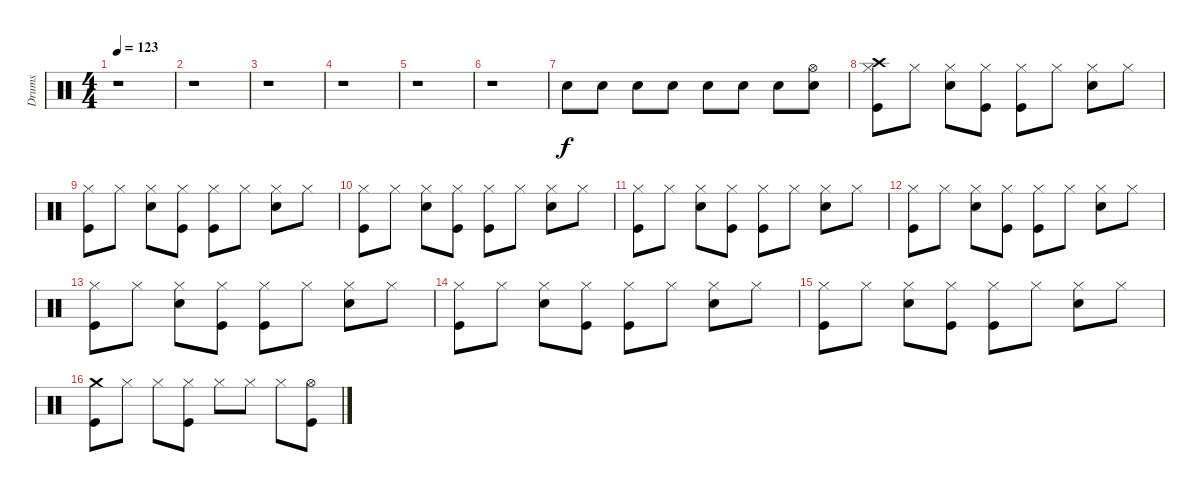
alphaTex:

\track ("Drums" "Drums") {instrument percussion}
\staff {score}
\articulation defaults
\ts (4 4)
\tempo 123
\clef neutral
\ks c
r.1{dy f} |
r.1 |
r.1 |
r.1 |
r.1 |
r.1 |
"Snare (hit) 2".8 "Snare (hit) 2".8 "Snare (hit) 2".8 "Snare (hit) 2".8 "Snare (hit) 2".8 "Snare (hit) 2".8 "Snare (hit) 2".8 ("Hi-Hat (open)" "Snare (hit) 2").8 |
("Hi-Hat (closed)" "Crash high (hit)" "Kick (hit)").8 "Hi-Hat (closed)".8 ("Hi-Hat (closed)" "Snare (hit) 2").8 ("Hi-Hat (closed)" "Kick (hit)").8 ("Hi-Hat (closed)" "Kick (hit)").8 "Hi-Hat (closed)".8 ("Hi-Hat (closed)" "Snare (hit) 2").8 "Hi-Hat (closed)".8 |
("Hi-Hat (closed)" "Kick (hit)").8 "Hi-Hat (closed)".8 ("Hi-Hat (closed)" "Snare (hit) 2").8 ("Hi-Hat (closed)" "Kick (hit)").8 ("Hi-Hat (closed)" "Kick (hit)").8 "Hi-Hat (closed)".8 ("Hi-Hat (closed)" "Snare (hit) 2").8 "Hi-Hat (closed)".8 |
("Hi-Hat (closed)" "Kick (hit)").8 "Hi-Hat (closed)".8 ("Hi-Hat (closed)" "Snare (hit) 2").8 ("Hi-Hat (closed)" "Kick (hit)").8 ("Hi-Hat (closed)" "Kick (hit)").8 "Hi-Hat (closed)".8 ("Hi-Hat (closed)" "Snare (hit) 2").8 "Hi-Hat (closed)".8 |
("Hi-Hat (closed)" "Kick (hit)").8 "Hi-Hat (closed)".8 ("Hi-Hat (closed)" "Snare (hit) 2").8 ("Hi-Hat (closed)" "Kick (hit)").8 ("Hi-Hat (closed)" "Kick (hit)").8 "Hi-Hat (closed)".8 ("Hi-Hat (closed)" "Snare (hit) 2").8 "Hi-Hat (closed)".8 |
("Hi-Hat (closed)" "Kick (hit)").8 "Hi-Hat (closed)".8 ("Hi-Hat (closed)" "Snare (hit) 2").8 ("Hi-Hat (closed)" "Kick (hit)").8 ("Hi-Hat (closed)" "Kick (hit)").8 "Hi-Hat (closed)".8 ("Hi-Hat (closed)" "Snare (hit) 2").8 "Hi-Hat (closed)".8 |
("Hi-Hat (closed)" "Kick (hit)").8 "Hi-Hat (closed)".8 ("Hi-Hat (closed)" "Snare (hit) 2").8 ("Hi-Hat (closed)" "Kick (hit)").8 ("Hi-Hat (closed)" "Kick (hit)").8 "Hi-Hat (closed)".8 ("Hi-Hat (closed)" "Snare (hit) 2").8 "Hi-Hat (closed)".8 |
("Hi-Hat (closed)" "Kick (hit)").8 "Hi-Hat (closed)".8 ("Hi-Hat (closed)" "Snare (hit) 2").8 ("Hi-Hat (closed)" "Kick (hit)").8 ("Hi-Hat (closed)" "Kick (hit)").8 "Hi-Hat (closed)".8 ("Hi-Hat (closed)" "Snare (hit) 2").8 "Hi-Hat (closed)".8 |
("Hi-Hat (closed)" "Kick (hit)").8 "Hi-Hat (closed)".8 ("Hi-Hat (closed)" "Snare (hit) 2").8 ("Hi-Hat (closed)" "Kick (hit)").8 ("Hi-Hat (closed)" "Kick (hit)").8 "Hi-Hat (closed)".8 ("Hi-Hat (closed)" "Snare (hit) 2").8 "Hi-Hat (closed)".8 |
("Crash medium (hit)" "Kick (hit)").8 "Hi-Hat (closed)".8 "Hi-Hat (closed)".8 ("Hi-Hat (closed)" "Kick (hit)").8 "Hi-Hat (closed)".8 "Hi-Hat (closed)".8 "Hi-Hat (closed)".8 ("Hi-Hat (open)" "Kick (hit)").8
